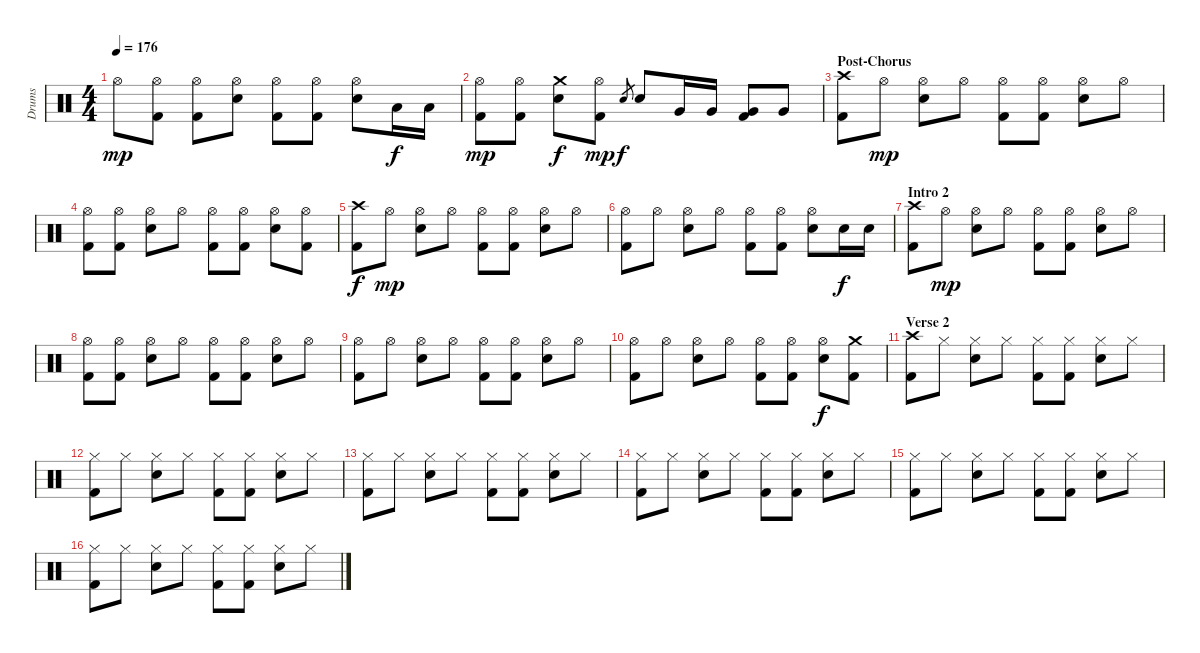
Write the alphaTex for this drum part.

\track ("Drums" "Drums") {instrument percussion}
\staff {score}
\articulation defaults
\ts (4 4)
\tempo 176
\clef neutral
\ks c "Hi-Hat (open)".8{dy mp}
("Hi-Hat (open)" "Kick (hit) 2").8 ("Hi-Hat (open)" "Kick (hit) 2").8 ("Hi-Hat (open)" "Electric Snare (hit)").8 ("Hi-Hat (open)" "Kick (hit) 2").8 ("Hi-Hat (open)" "Kick (hit) 2").8 ("Hi-Hat (open)" "Electric Snare (hit)").8 "Low Tom (hit)".16{dy f} "Low Tom (hit)".16 |
("Hi-Hat (open)" "Kick (hit) 2").8{dy mp} ("Hi-Hat (open)" "Kick (hit) 2").8 ("Crash medium (hit)" "Electric Snare (hit)").8{dy f} ("Hi-Hat (open)" "Kick (hit) 2").8{dy mp} "Electric Snare (hit)".8{gr dy f} "Electric Snare (hit)".8 "Very Low Tom (hit)".16 "Very Low Tom (hit)".16 ("Very Low Tom (hit)" "Kick (hit) 2").8 "Very Low Tom (hit)".8 |
\section ("" "Post-Chorus")
("Crash high (hit)" "Kick (hit) 2").8 "Hi-Hat (open)".8{dy mp} ("Hi-Hat (open)" "Electric Snare (hit)").8 "Hi-Hat (open)".8 ("Hi-Hat (open)" "Kick (hit) 2").8 ("Hi-Hat (open)" "Kick (hit) 2").8 ("Hi-Hat (open)" "Electric Snare (hit)").8 "Hi-Hat (open)".8 |
("Hi-Hat (open)" "Kick (hit) 2").8 ("Hi-Hat (open)" "Kick (hit) 2").8 ("Hi-Hat (open)" "Electric Snare (hit)").8 "Hi-Hat (open)".8 ("Hi-Hat (open)" "Kick (hit) 2").8 ("Hi-Hat (open)" "Kick (hit) 2").8 ("Hi-Hat (open)" "Electric Snare (hit)").8 ("Hi-Hat (open)" "Kick (hit) 2").8 |
("Crash high (hit)" "Kick (hit) 2").8{dy f} "Hi-Hat (open)".8{dy mp} ("Hi-Hat (open)" "Electric Snare (hit)").8 "Hi-Hat (open)".8 ("Hi-Hat (open)" "Kick (hit) 2").8 ("Hi-Hat (open)" "Kick (hit) 2").8 ("Hi-Hat (open)" "Electric Snare (hit)").8 "Hi-Hat (open)".8 |
("Hi-Hat (open)" "Kick (hit) 2").8 "Hi-Hat (open)".8 ("Hi-Hat (open)" "Electric Snare (hit)").8 "Hi-Hat (open)".8 ("Hi-Hat (open)" "Kick (hit) 2").8 ("Hi-Hat (open)" "Kick (hit) 2").8 ("Hi-Hat (open)" "Electric Snare (hit)").8 "Electric Snare (hit)".16{dy f} "Electric Snare (hit)".16 |
\section ("" "Intro 2")
("Crash high (hit)" "Kick (hit) 2").8 "Hi-Hat (open)".8{dy mp} ("Hi-Hat (open)" "Electric Snare (hit)").8 "Hi-Hat (open)".8 ("Hi-Hat (open)" "Kick (hit) 2").8 ("Hi-Hat (open)" "Kick (hit) 2").8 ("Hi-Hat (open)" "Electric Snare (hit)").8 "Hi-Hat (open)".8 |
("Hi-Hat (open)" "Kick (hit) 2").8 ("Hi-Hat (open)" "Kick (hit) 2").8 ("Hi-Hat (open)" "Electric Snare (hit)").8 "Hi-Hat (open)".8 ("Hi-Hat (open)" "Kick (hit) 2").8 ("Hi-Hat (open)" "Kick (hit) 2").8 ("Hi-Hat (open)" "Electric Snare (hit)").8 "Hi-Hat (open)".8 |
("Hi-Hat (open)" "Kick (hit) 2").8 "Hi-Hat (open)".8 ("Hi-Hat (open)" "Electric Snare (hit)").8 "Hi-Hat (open)".8 ("Hi-Hat (open)" "Kick (hit) 2").8 ("Hi-Hat (open)" "Kick (hit) 2").8 ("Hi-Hat (open)" "Electric Snare (hit)").8 "Hi-Hat (open)".8 |
("Hi-Hat (open)" "Kick (hit) 2").8 "Hi-Hat (open)".8 ("Hi-Hat (open)" "Electric Snare (hit)").8 "Hi-Hat (open)".8 ("Hi-Hat (open)" "Kick (hit) 2").8 ("Hi-Hat (open)" "Kick (hit) 2").8 ("Hi-Hat (open)" "Electric Snare (hit)").8{dy f} ("Crash medium (hit)" "Kick (hit) 2").8 |
\section ("" "Verse 2")
("Crash high (hit)" "Kick (hit) 2").8 "Hi-Hat (closed)".8 ("Hi-Hat (closed)" "Electric Snare (hit)").8 "Hi-Hat (closed)".8 ("Hi-Hat (closed)" "Kick (hit) 2").8 ("Hi-Hat (closed)" "Kick (hit) 2").8 ("Hi-Hat (closed)" "Electric Snare (hit)").8 "Hi-Hat (closed)".8 |
("Hi-Hat (closed)" "Kick (hit) 2").8 "Hi-Hat (closed)".8 ("Hi-Hat (closed)" "Electric Snare (hit)").8 "Hi-Hat (closed)".8 ("Hi-Hat (closed)" "Kick (hit) 2").8 ("Hi-Hat (closed)" "Kick (hit) 2").8 ("Hi-Hat (closed)" "Electric Snare (hit)").8 "Hi-Hat (closed)".8 |
("Hi-Hat (closed)" "Kick (hit) 2").8 "Hi-Hat (closed)".8 ("Hi-Hat (closed)" "Electric Snare (hit)").8 "Hi-Hat (closed)".8 ("Hi-Hat (closed)" "Kick (hit) 2").8 ("Hi-Hat (closed)" "Kick (hit) 2").8 ("Hi-Hat (closed)" "Electric Snare (hit)").8 "Hi-Hat (closed)".8 |
("Hi-Hat (closed)" "Kick (hit) 2").8 "Hi-Hat (closed)".8 ("Hi-Hat (closed)" "Electric Snare (hit)").8 "Hi-Hat (closed)".8 ("Hi-Hat (closed)" "Kick (hit) 2").8 ("Hi-Hat (closed)" "Kick (hit) 2").8 ("Hi-Hat (closed)" "Electric Snare (hit)").8 "Hi-Hat (closed)".8 |
("Hi-Hat (closed)" "Kick (hit) 2").8 "Hi-Hat (closed)".8 ("Hi-Hat (closed)" "Electric Snare (hit)").8 "Hi-Hat (closed)".8 ("Hi-Hat (closed)" "Kick (hit) 2").8 ("Hi-Hat (closed)" "Kick (hit) 2").8 ("Hi-Hat (closed)" "Electric Snare (hit)").8 "Hi-Hat (closed)".8 |
("Hi-Hat (closed)" "Kick (hit) 2").8 "Hi-Hat (closed)".8 ("Hi-Hat (closed)" "Electric Snare (hit)").8 "Hi-Hat (closed)".8 ("Hi-Hat (closed)" "Kick (hit) 2").8 ("Hi-Hat (closed)" "Kick (hit) 2").8 ("Hi-Hat (closed)" "Electric Snare (hit)").8 "Hi-Hat (closed)".8
